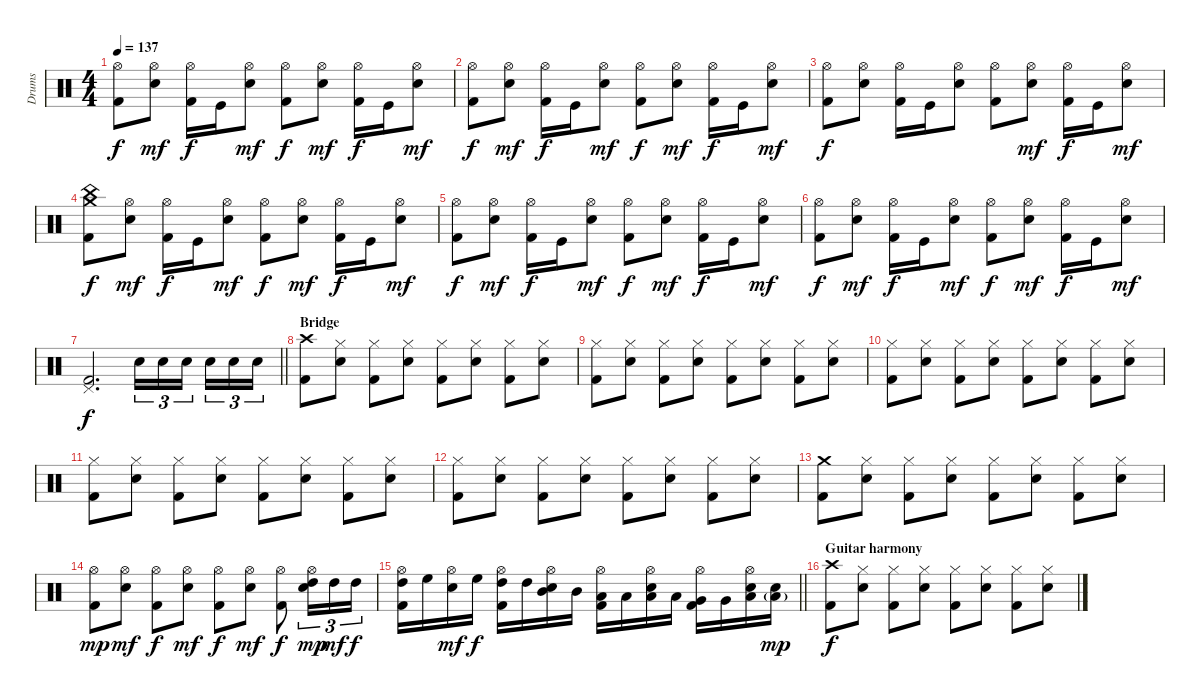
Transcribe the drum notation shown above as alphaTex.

\track ("Drums" "Drums") {instrument percussion}
\staff {score}
\articulation defaults
\ts (4 4)
\tempo 137
\clef neutral
\ks c
("Hi-Hat (open)" "Kick (hit) 2").8{dy f} ("Hi-Hat (open)" "Snare (hit) 2").8{dy mf} ("Hi-Hat (open)" "Kick (hit) 2").16{dy f} "Kick (hit)".16 ("Hi-Hat (open)" "Snare (hit) 2").8{dy mf} ("Hi-Hat (open)" "Kick (hit) 2").8{dy f} ("Hi-Hat (open)" "Snare (hit) 2").8{dy mf} ("Hi-Hat (open)" "Kick (hit) 2").16{dy f} "Kick (hit)".16 ("Hi-Hat (open)" "Snare (hit) 2").8{dy mf} |
("Hi-Hat (open)" "Kick (hit) 2").8{dy f} ("Hi-Hat (open)" "Snare (hit) 2").8{dy mf} ("Hi-Hat (open)" "Kick (hit) 2").16{dy f} "Kick (hit)".16 ("Hi-Hat (open)" "Snare (hit) 2").8{dy mf} ("Hi-Hat (open)" "Kick (hit) 2").8{dy f} ("Hi-Hat (open)" "Snare (hit) 2").8{dy mf} ("Hi-Hat (open)" "Kick (hit) 2").16{dy f} "Kick (hit)".16 ("Hi-Hat (open)" "Snare (hit) 2").8{dy mf} |
("Hi-Hat (open)" "Kick (hit) 2").8{dy f} ("Hi-Hat (open)" "Snare (hit) 2").8 ("Hi-Hat (open)" "Kick (hit) 2").16 "Kick (hit)".16 ("Hi-Hat (open)" "Snare (hit) 2").8 ("Hi-Hat (open)" "Kick (hit) 2").8 ("Hi-Hat (open)" "Snare (hit) 2").8{dy mf} ("Hi-Hat (open)" "Kick (hit) 2").16{dy f} "Kick (hit)".16 ("Hi-Hat (open)" "Snare (hit) 2").8{dy mf} |
("China (hit)" "Crash medium (hit)" "Kick (hit) 2").8{dy f} ("Hi-Hat (open)" "Snare (hit) 2").8{dy mf} ("Hi-Hat (open)" "Kick (hit) 2").16{dy f} "Kick (hit)".16 ("Hi-Hat (open)" "Snare (hit) 2").8{dy mf} ("Hi-Hat (open)" "Kick (hit) 2").8{dy f} ("Hi-Hat (open)" "Snare (hit) 2").8{dy mf} ("Hi-Hat (open)" "Kick (hit) 2").16{dy f} "Kick (hit)".16 ("Hi-Hat (open)" "Snare (hit) 2").8{dy mf} |
("Hi-Hat (open)" "Kick (hit) 2").8{dy f} ("Hi-Hat (open)" "Snare (hit) 2").8{dy mf} ("Hi-Hat (open)" "Kick (hit) 2").16{dy f} "Kick (hit)".16 ("Hi-Hat (open)" "Snare (hit) 2").8{dy mf} ("Hi-Hat (open)" "Kick (hit) 2").8{dy f} ("Hi-Hat (open)" "Snare (hit) 2").8{dy mf} ("Hi-Hat (open)" "Kick (hit) 2").16{dy f} "Kick (hit)".16 ("Hi-Hat (open)" "Snare (hit) 2").8{dy mf} |
("Hi-Hat (open)" "Kick (hit) 2").8{dy f} ("Hi-Hat (open)" "Snare (hit) 2").8{dy mf} ("Hi-Hat (open)" "Kick (hit) 2").16{dy f} "Kick (hit)".16 ("Hi-Hat (open)" "Snare (hit) 2").8{dy mf} ("Hi-Hat (open)" "Kick (hit) 2").8{dy f} ("Hi-Hat (open)" "Snare (hit) 2").8{dy mf} ("Hi-Hat (open)" "Kick (hit) 2").16{dy f} "Kick (hit)".16 ("Hi-Hat (open)" "Snare (hit) 2").8{dy mf} |
\barLineRight lightlight
("Pedal Hi-Hat (hit)" "Kick (hit) 2").2{d dy f} "Snare (hit) 2".16{tu (3 2)} "Snare (hit) 2".16{tu (3 2)} "Snare (hit) 2".16{tu (3 2) beam splitsecondary} "Snare (hit) 2".16{tu (3 2)} "Snare (hit) 2".16{tu (3 2)} "Snare (hit) 2".16{tu (3 2)} |
\section ("" "Bridge")
("Crash high (hit)" "Kick (hit) 2").8 ("Hi-Hat (closed)" "Snare (hit) 2").8 ("Hi-Hat (closed)" "Kick (hit) 2").8 ("Hi-Hat (closed)" "Snare (hit) 2").8 ("Hi-Hat (closed)" "Kick (hit) 2").8 ("Hi-Hat (closed)" "Snare (hit) 2").8 ("Hi-Hat (closed)" "Kick (hit) 2").8 ("Hi-Hat (closed)" "Snare (hit) 2").8 |
("Hi-Hat (closed)" "Kick (hit) 2").8 ("Hi-Hat (closed)" "Snare (hit) 2").8 ("Hi-Hat (closed)" "Kick (hit) 2").8 ("Hi-Hat (closed)" "Snare (hit) 2").8 ("Hi-Hat (closed)" "Kick (hit) 2").8 ("Hi-Hat (closed)" "Snare (hit) 2").8 ("Hi-Hat (closed)" "Kick (hit) 2").8 ("Hi-Hat (closed)" "Snare (hit) 2").8 |
("Hi-Hat (closed)" "Kick (hit) 2").8 ("Hi-Hat (closed)" "Snare (hit) 2").8 ("Hi-Hat (closed)" "Kick (hit) 2").8 ("Hi-Hat (closed)" "Snare (hit) 2").8 ("Hi-Hat (closed)" "Kick (hit) 2").8 ("Hi-Hat (closed)" "Snare (hit) 2").8 ("Hi-Hat (closed)" "Kick (hit) 2").8 ("Hi-Hat (closed)" "Snare (hit) 2").8 |
("Hi-Hat (closed)" "Kick (hit) 2").8 ("Hi-Hat (closed)" "Snare (hit) 2").8 ("Hi-Hat (closed)" "Kick (hit) 2").8 ("Hi-Hat (closed)" "Snare (hit) 2").8 ("Hi-Hat (closed)" "Kick (hit) 2").8 ("Hi-Hat (closed)" "Snare (hit) 2").8 ("Hi-Hat (closed)" "Kick (hit) 2").8 ("Hi-Hat (closed)" "Snare (hit) 2").8 |
("Hi-Hat (closed)" "Kick (hit) 2").8 ("Hi-Hat (closed)" "Snare (hit) 2").8 ("Hi-Hat (closed)" "Kick (hit) 2").8 ("Hi-Hat (closed)" "Snare (hit) 2").8 ("Hi-Hat (closed)" "Kick (hit) 2").8 ("Hi-Hat (closed)" "Snare (hit) 2").8 ("Hi-Hat (closed)" "Kick (hit) 2").8 ("Hi-Hat (closed)" "Snare (hit) 2").8 |
("Crash medium (hit)" "Kick (hit) 2").8 ("Hi-Hat (closed)" "Snare (hit) 2").8 ("Hi-Hat (closed)" "Kick (hit) 2").8 ("Hi-Hat (closed)" "Snare (hit) 2").8 ("Hi-Hat (closed)" "Kick (hit) 2").8 ("Hi-Hat (closed)" "Snare (hit) 2").8 ("Hi-Hat (closed)" "Kick (hit) 2").8 ("Hi-Hat (closed)" "Snare (hit) 2").8 |
("Hi-Hat (open)" "Kick (hit) 2").8{dy mp} ("Hi-Hat (open)" "Snare (hit) 2").8{dy mf} ("Hi-Hat (open)" "Kick (hit) 2").8{dy f} ("Hi-Hat (open)" "Snare (hit) 2").8{dy mf} ("Hi-Hat (open)" "Kick (hit) 2").8{dy f} ("Hi-Hat (open)" "Snare (hit) 2").8{dy mf} ("Hi-Hat (open)" "Kick (hit) 2").8{dy f} ("Hi-Hat (open)" "High Tom (hit)" "Snare (hit) 2").16{tu (3 2) dy mp} "High Tom (hit)".16{tu (3 2) dy mf} "High Tom (hit)".16{tu (3 2) dy f} |
\barLineRight lightlight
("Hi-Hat (open)" "High Tom (hit)" "Kick (hit) 2").16 "High Floor Tom (hit)".16 ("Hi-Hat (open)" "Snare (hit) 2").16{dy mf} "High Floor Tom (hit)".16{dy f} ("Hi-Hat (open)" "High Tom (hit)" "Kick (hit) 2").16 "High Tom (hit)".16 ("Hi-Hat (open)" "Mid Tom (hit)" "Snare (hit) 2").16 "Mid Tom (hit)".16 ("Hi-Hat (open)" "Low Tom (hit)" "Kick (hit) 2").16 "Low Tom (hit)".16 ("Hi-Hat (open)" "Low Tom (hit)" "Snare (hit) 2").16 "Low Tom (hit)".16 ("Hi-Hat (open)" "Very Low Tom (hit)" "Kick (hit) 2").16 "Very Low Tom (hit)".16 ("Hi-Hat (open)" "Low Floor Tom (hit)" "Snare (hit) 2").16 ("Low Floor Tom (hit)"{g} "Snare (hit) 2").16{dy mp} |
\section ("" "Guitar harmony")
("Crash high (hit)" "Kick (hit) 2").8{dy f} ("Hi-Hat (closed)" "Snare (hit) 2").8 ("Hi-Hat (closed)" "Kick (hit) 2").8 ("Hi-Hat (closed)" "Snare (hit) 2").8 ("Hi-Hat (closed)" "Kick (hit) 2").8 ("Hi-Hat (closed)" "Snare (hit) 2").8 ("Hi-Hat (closed)" "Kick (hit) 2").8 ("Hi-Hat (closed)" "Snare (hit) 2").8
